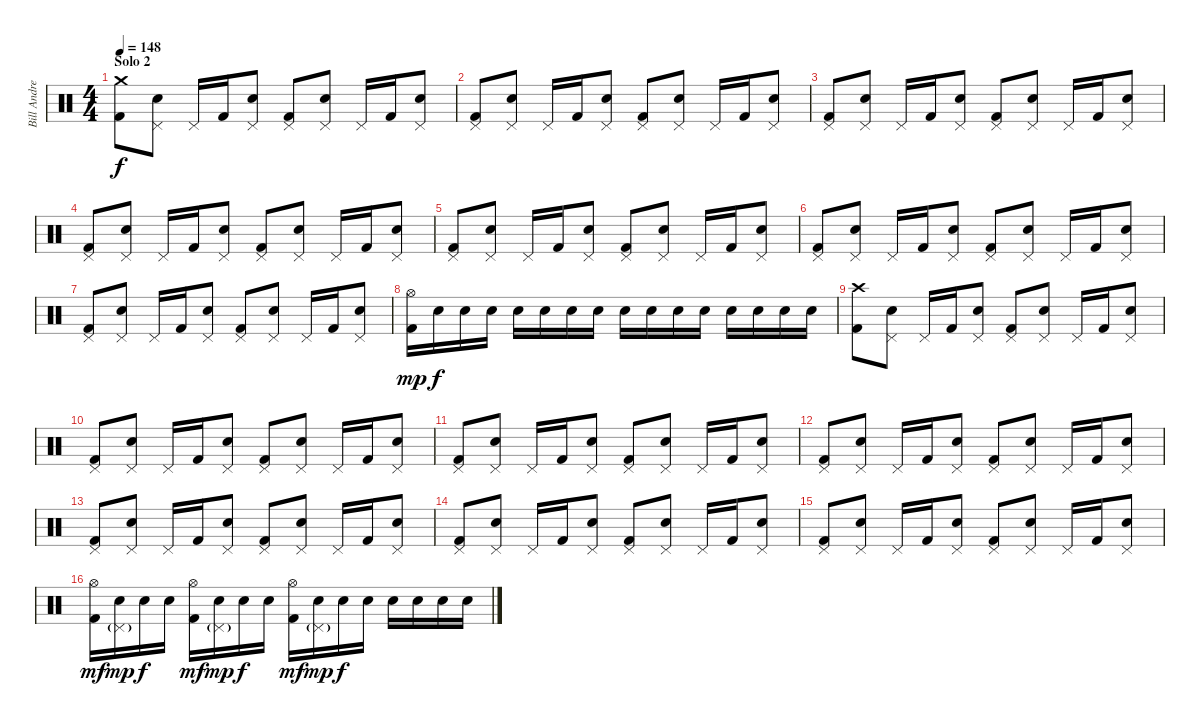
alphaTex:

\track ("Bill Andrews" "Bill Andre") {instrument percussion}
\staff {score}
\articulation defaults
\ts (4 4)
\section ("" "Solo 2")
\tempo 148
\clef neutral
\ks c
("Kick (hit) 2" "Crash medium (hit)").8{dy f} ("Pedal Hi-Hat (hit)" "Snare (hit) 2").8 "Pedal Hi-Hat (hit)".16 "Kick (hit) 2".16 ("Pedal Hi-Hat (hit)" "Snare (hit) 2").8 ("Kick (hit) 2" "Pedal Hi-Hat (hit)").8 ("Pedal Hi-Hat (hit)" "Snare (hit) 2").8 "Pedal Hi-Hat (hit)".16 "Kick (hit) 2".16 ("Pedal Hi-Hat (hit)" "Snare (hit) 2").8 |
("Kick (hit) 2" "Pedal Hi-Hat (hit)").8 ("Pedal Hi-Hat (hit)" "Snare (hit) 2").8 "Pedal Hi-Hat (hit)".16 "Kick (hit) 2".16 ("Pedal Hi-Hat (hit)" "Snare (hit) 2").8 ("Kick (hit) 2" "Pedal Hi-Hat (hit)").8 ("Pedal Hi-Hat (hit)" "Snare (hit) 2").8 "Pedal Hi-Hat (hit)".16 "Kick (hit) 2".16 ("Pedal Hi-Hat (hit)" "Snare (hit) 2").8 |
("Kick (hit) 2" "Pedal Hi-Hat (hit)").8 ("Pedal Hi-Hat (hit)" "Snare (hit) 2").8 "Pedal Hi-Hat (hit)".16 "Kick (hit) 2".16 ("Pedal Hi-Hat (hit)" "Snare (hit) 2").8 ("Kick (hit) 2" "Pedal Hi-Hat (hit)").8 ("Pedal Hi-Hat (hit)" "Snare (hit) 2").8 "Pedal Hi-Hat (hit)".16 "Kick (hit) 2".16 ("Pedal Hi-Hat (hit)" "Snare (hit) 2").8 |
("Kick (hit) 2" "Pedal Hi-Hat (hit)").8 ("Pedal Hi-Hat (hit)" "Snare (hit) 2").8 "Pedal Hi-Hat (hit)".16 "Kick (hit) 2".16 ("Pedal Hi-Hat (hit)" "Snare (hit) 2").8 ("Kick (hit) 2" "Pedal Hi-Hat (hit)").8 ("Pedal Hi-Hat (hit)" "Snare (hit) 2").8 "Pedal Hi-Hat (hit)".16 "Kick (hit) 2".16 ("Pedal Hi-Hat (hit)" "Snare (hit) 2").8 |
("Kick (hit) 2" "Pedal Hi-Hat (hit)").8 ("Pedal Hi-Hat (hit)" "Snare (hit) 2").8 "Pedal Hi-Hat (hit)".16 "Kick (hit) 2".16 ("Pedal Hi-Hat (hit)" "Snare (hit) 2").8 ("Kick (hit) 2" "Pedal Hi-Hat (hit)").8 ("Pedal Hi-Hat (hit)" "Snare (hit) 2").8 "Pedal Hi-Hat (hit)".16 "Kick (hit) 2".16 ("Pedal Hi-Hat (hit)" "Snare (hit) 2").8 |
("Kick (hit) 2" "Pedal Hi-Hat (hit)").8 ("Pedal Hi-Hat (hit)" "Snare (hit) 2").8 "Pedal Hi-Hat (hit)".16 "Kick (hit) 2".16 ("Pedal Hi-Hat (hit)" "Snare (hit) 2").8 ("Kick (hit) 2" "Pedal Hi-Hat (hit)").8 ("Pedal Hi-Hat (hit)" "Snare (hit) 2").8 "Pedal Hi-Hat (hit)".16 "Kick (hit) 2".16 ("Pedal Hi-Hat (hit)" "Snare (hit) 2").8 |
("Kick (hit) 2" "Pedal Hi-Hat (hit)").8 ("Pedal Hi-Hat (hit)" "Snare (hit) 2").8 "Pedal Hi-Hat (hit)".16 "Kick (hit) 2".16 ("Pedal Hi-Hat (hit)" "Snare (hit) 2").8 ("Kick (hit) 2" "Pedal Hi-Hat (hit)").8 ("Pedal Hi-Hat (hit)" "Snare (hit) 2").8 "Pedal Hi-Hat (hit)".16 "Kick (hit) 2".16 ("Pedal Hi-Hat (hit)" "Snare (hit) 2").8 |
("Kick (hit) 2" "Hi-Hat (open)").16{dy mp} "Snare (hit) 2".16{dy f} "Snare (hit) 2".16 "Snare (hit) 2".16 "Snare (hit) 2".16 "Snare (hit) 2".16 "Snare (hit) 2".16 "Snare (hit) 2".16 "Snare (hit) 2".16 "Snare (hit) 2".16 "Snare (hit) 2".16 "Snare (hit) 2".16 "Snare (hit) 2".16 "Snare (hit) 2".16 "Snare (hit) 2".16 "Snare (hit) 2".16 |
("Kick (hit) 2" "Crash high (hit)").8 ("Pedal Hi-Hat (hit)" "Snare (hit) 2").8 "Pedal Hi-Hat (hit)".16 "Kick (hit) 2".16 ("Pedal Hi-Hat (hit)" "Snare (hit) 2").8 ("Kick (hit) 2" "Pedal Hi-Hat (hit)").8 ("Pedal Hi-Hat (hit)" "Snare (hit) 2").8 "Pedal Hi-Hat (hit)".16 "Kick (hit) 2".16 ("Pedal Hi-Hat (hit)" "Snare (hit) 2").8 |
("Kick (hit) 2" "Pedal Hi-Hat (hit)").8 ("Pedal Hi-Hat (hit)" "Snare (hit) 2").8 "Pedal Hi-Hat (hit)".16 "Kick (hit) 2".16 ("Pedal Hi-Hat (hit)" "Snare (hit) 2").8 ("Kick (hit) 2" "Pedal Hi-Hat (hit)").8 ("Pedal Hi-Hat (hit)" "Snare (hit) 2").8 "Pedal Hi-Hat (hit)".16 "Kick (hit) 2".16 ("Pedal Hi-Hat (hit)" "Snare (hit) 2").8 |
("Kick (hit) 2" "Pedal Hi-Hat (hit)").8 ("Pedal Hi-Hat (hit)" "Snare (hit) 2").8 "Pedal Hi-Hat (hit)".16 "Kick (hit) 2".16 ("Pedal Hi-Hat (hit)" "Snare (hit) 2").8 ("Kick (hit) 2" "Pedal Hi-Hat (hit)").8 ("Pedal Hi-Hat (hit)" "Snare (hit) 2").8 "Pedal Hi-Hat (hit)".16 "Kick (hit) 2".16 ("Pedal Hi-Hat (hit)" "Snare (hit) 2").8 |
("Kick (hit) 2" "Pedal Hi-Hat (hit)").8 ("Pedal Hi-Hat (hit)" "Snare (hit) 2").8 "Pedal Hi-Hat (hit)".16 "Kick (hit) 2".16 ("Pedal Hi-Hat (hit)" "Snare (hit) 2").8 ("Kick (hit) 2" "Pedal Hi-Hat (hit)").8 ("Pedal Hi-Hat (hit)" "Snare (hit) 2").8 "Pedal Hi-Hat (hit)".16 "Kick (hit) 2".16 ("Pedal Hi-Hat (hit)" "Snare (hit) 2").8 |
("Kick (hit) 2" "Pedal Hi-Hat (hit)").8 ("Pedal Hi-Hat (hit)" "Snare (hit) 2").8 "Pedal Hi-Hat (hit)".16 "Kick (hit) 2".16 ("Pedal Hi-Hat (hit)" "Snare (hit) 2").8 ("Kick (hit) 2" "Pedal Hi-Hat (hit)").8 ("Pedal Hi-Hat (hit)" "Snare (hit) 2").8 "Pedal Hi-Hat (hit)".16 "Kick (hit) 2".16 ("Pedal Hi-Hat (hit)" "Snare (hit) 2").8 |
("Kick (hit) 2" "Pedal Hi-Hat (hit)").8 ("Pedal Hi-Hat (hit)" "Snare (hit) 2").8 "Pedal Hi-Hat (hit)".16 "Kick (hit) 2".16 ("Pedal Hi-Hat (hit)" "Snare (hit) 2").8 ("Kick (hit) 2" "Pedal Hi-Hat (hit)").8 ("Pedal Hi-Hat (hit)" "Snare (hit) 2").8 "Pedal Hi-Hat (hit)".16 "Kick (hit) 2".16 ("Pedal Hi-Hat (hit)" "Snare (hit) 2").8 |
("Kick (hit) 2" "Pedal Hi-Hat (hit)").8 ("Pedal Hi-Hat (hit)" "Snare (hit) 2").8 "Pedal Hi-Hat (hit)".16 "Kick (hit) 2".16 ("Pedal Hi-Hat (hit)" "Snare (hit) 2").8 ("Kick (hit) 2" "Pedal Hi-Hat (hit)").8 ("Pedal Hi-Hat (hit)" "Snare (hit) 2").8 "Pedal Hi-Hat (hit)".16 "Kick (hit) 2".16 ("Pedal Hi-Hat (hit)" "Snare (hit) 2").8 |
("Kick (hit) 2" "Hi-Hat (open)").16{dy mf} ("Pedal Hi-Hat (hit)"{g} "Snare (hit) 2").16{dy mp} "Snare (hit) 2".16{dy f} "Snare (hit) 2".16 ("Kick (hit) 2" "Hi-Hat (open)").16{dy mf} ("Pedal Hi-Hat (hit)"{g} "Snare (hit) 2").16{dy mp} "Snare (hit) 2".16{dy f} "Snare (hit) 2".16 ("Kick (hit) 2" "Hi-Hat (open)").16{dy mf} ("Pedal Hi-Hat (hit)"{g} "Snare (hit) 2").16{dy mp} "Snare (hit) 2".16{dy f} "Snare (hit) 2".16 "Snare (hit) 2".16 "Snare (hit) 2".16 "Snare (hit) 2".16 "Snare (hit) 2".16
